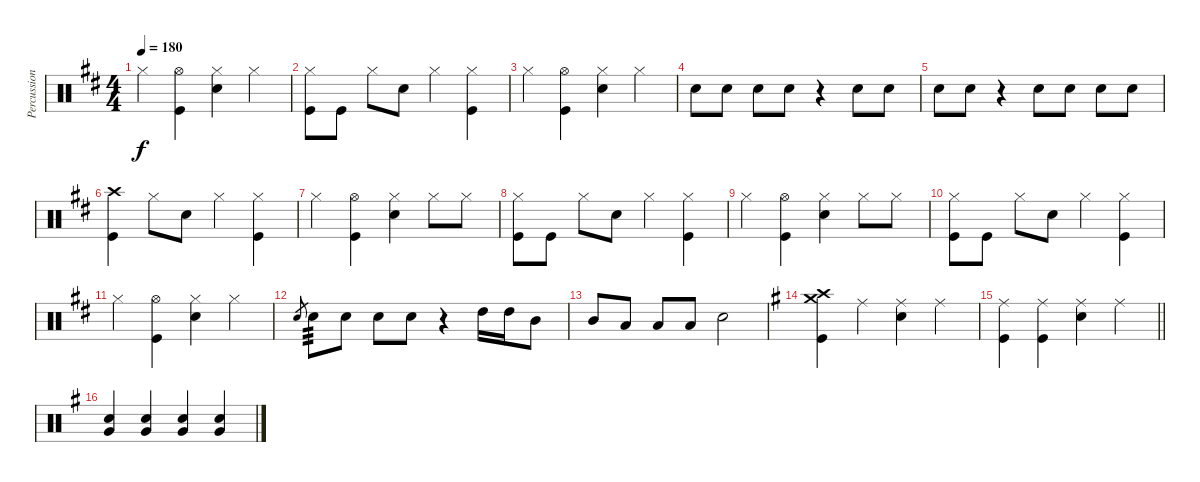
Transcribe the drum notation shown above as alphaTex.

\track ("Percussioni" "Percussion") {instrument percussion}
\staff {score}
\articulation defaults
\ts (4 4)
\tempo 180
\clef neutral
\ks d "Hi-Hat (closed)".4{dy f}
("Hi-Hat (open)" "Kick (hit)").4 ("Hi-Hat (closed)" "Snare (hit) 2").4 "Hi-Hat (closed)".4 |
("Hi-Hat (closed)" "Kick (hit)").8 "Kick (hit)".8 "Hi-Hat (closed)".8 "Snare (hit) 2".8 "Hi-Hat (closed)".4 ("Hi-Hat (closed)" "Kick (hit)").4 |
"Hi-Hat (closed)".4 ("Hi-Hat (open)" "Kick (hit)").4 ("Hi-Hat (closed)" "Snare (hit) 2").4 "Hi-Hat (closed)".4 |
"Snare (hit) 2".8 "Snare (hit) 2".8 "Snare (hit) 2".8 "Snare (hit) 2".8 r.4 "Snare (hit) 2".8 "Snare (hit) 2".8 |
"Snare (hit) 2".8 "Snare (hit) 2".8 r.4 "Snare (hit) 2".8 "Snare (hit) 2".8 "Snare (hit) 2".8 "Snare (hit) 2".8 |
("Crash high (hit)" "Kick (hit)").4 "Hi-Hat (closed)".8 "Snare (hit) 2".8 "Hi-Hat (closed)".4 ("Hi-Hat (closed)" "Kick (hit)").4 |
"Hi-Hat (closed)".4 ("Hi-Hat (open)" "Kick (hit)").4 ("Hi-Hat (closed)" "Snare (hit) 2").4 "Hi-Hat (closed)".8 "Hi-Hat (closed)".8 |
("Hi-Hat (closed)" "Kick (hit)").8 "Kick (hit)".8 "Hi-Hat (closed)".8 "Snare (hit) 2".8 "Hi-Hat (closed)".4 ("Hi-Hat (closed)" "Kick (hit)").4 |
"Hi-Hat (closed)".4 ("Hi-Hat (open)" "Kick (hit)").4 ("Hi-Hat (closed)" "Snare (hit) 2").4 "Hi-Hat (closed)".8 "Hi-Hat (closed)".8 |
("Hi-Hat (closed)" "Kick (hit)").8 "Kick (hit)".8 "Hi-Hat (closed)".8 "Snare (hit) 2".8 "Hi-Hat (closed)".4 ("Hi-Hat (closed)" "Kick (hit)").4 |
"Hi-Hat (closed)".4 ("Hi-Hat (open)" "Kick (hit)").4 ("Hi-Hat (closed)" "Snare (hit) 2").4 "Hi-Hat (closed)".4 |
"Snare (hit) 2".8{gr} "Snare (hit) 2".8{tp 3} "Snare (hit) 2".8 "Snare (hit) 2".8 "Snare (hit) 2".8 r.4 "High Tom (hit)".16 "High Tom (hit)".16 "Mid Tom (hit)".8 |
"Mid Tom (hit)".8 "Low Tom (hit)".8 "Low Tom (hit)".8 "Low Tom (hit)".8 "Snare (hit) 2".2 |
\ks g
("Crash high (hit)" "Crash medium (hit)" "Kick (hit)").4 "Ride (middle)".4 ("Ride (middle)" "Snare (hit) 2").4 "Ride (middle)".4 |
\barLineRight lightlight
("Ride (middle)" "Kick (hit)").4 ("Ride (middle)" "Kick (hit)").4 ("Ride (middle)" "Snare (hit) 2").4 "Ride (middle)".4 |
("Snare (hit) 2" "Very Low Tom (hit)").4 ("Snare (hit) 2" "Very Low Tom (hit)").4 ("Snare (hit) 2" "Very Low Tom (hit)").4 ("Snare (hit) 2" "Very Low Tom (hit)").4
